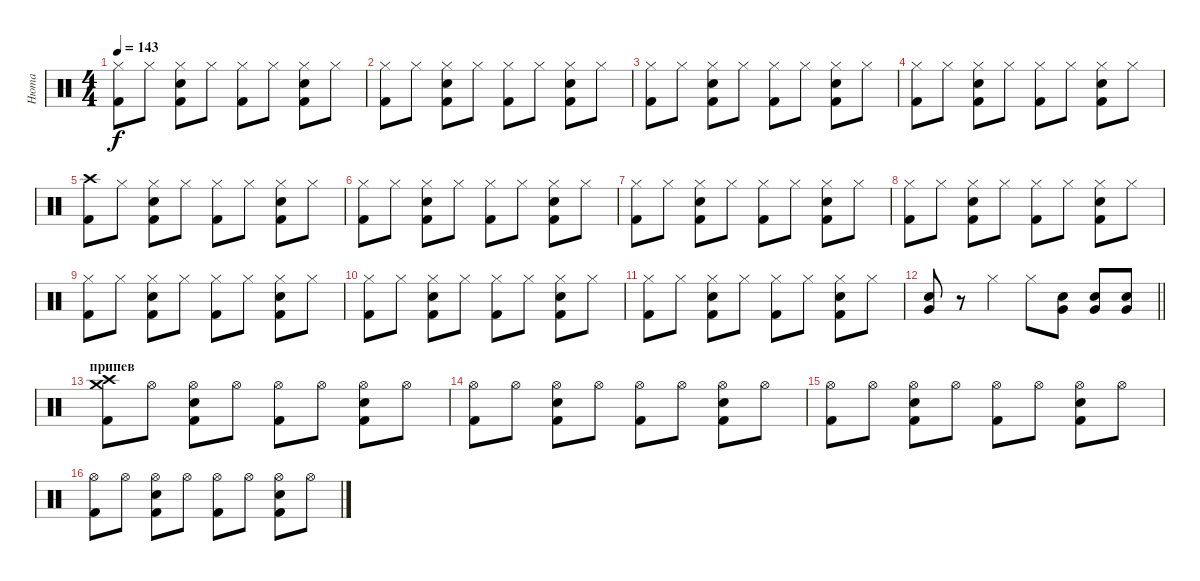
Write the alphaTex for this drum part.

\track ("Нюта" "Нюта") {instrument percussion}
\staff {score}
\articulation defaults
\ts (4 4)
\tempo 143
\clef neutral
\ks c
("Hi-Hat (closed)" "Kick (hit) 2").8{dy f} "Hi-Hat (closed)".8 ("Hi-Hat (closed)" "Snare (hit) 2" "Kick (hit) 2").8 "Hi-Hat (closed)".8 ("Hi-Hat (closed)" "Kick (hit) 2").8 "Hi-Hat (closed)".8 ("Hi-Hat (closed)" "Snare (hit) 2" "Kick (hit) 2").8 "Hi-Hat (closed)".8 |
("Hi-Hat (closed)" "Kick (hit) 2").8 "Hi-Hat (closed)".8 ("Hi-Hat (closed)" "Snare (hit) 2" "Kick (hit) 2").8 "Hi-Hat (closed)".8 ("Hi-Hat (closed)" "Kick (hit) 2").8 "Hi-Hat (closed)".8 ("Hi-Hat (closed)" "Snare (hit) 2" "Kick (hit) 2").8 "Hi-Hat (closed)".8 |
("Hi-Hat (closed)" "Kick (hit) 2").8 "Hi-Hat (closed)".8 ("Hi-Hat (closed)" "Snare (hit) 2" "Kick (hit) 2").8 "Hi-Hat (closed)".8 ("Hi-Hat (closed)" "Kick (hit) 2").8 "Hi-Hat (closed)".8 ("Hi-Hat (closed)" "Snare (hit) 2" "Kick (hit) 2").8 "Hi-Hat (closed)".8 |
("Hi-Hat (closed)" "Kick (hit) 2").8 "Hi-Hat (closed)".8 ("Hi-Hat (closed)" "Snare (hit) 2" "Kick (hit) 2").8 "Hi-Hat (closed)".8 ("Hi-Hat (closed)" "Kick (hit) 2").8 "Hi-Hat (closed)".8 ("Hi-Hat (closed)" "Snare (hit) 2" "Kick (hit) 2").8 "Hi-Hat (closed)".8 |
("Crash high (hit)" "Kick (hit) 2").8 "Hi-Hat (closed)".8 ("Hi-Hat (closed)" "Snare (hit) 2" "Kick (hit) 2").8 "Hi-Hat (closed)".8 ("Hi-Hat (closed)" "Kick (hit) 2").8 "Hi-Hat (closed)".8 ("Hi-Hat (closed)" "Snare (hit) 2" "Kick (hit) 2").8 "Hi-Hat (closed)".8 |
("Hi-Hat (closed)" "Kick (hit) 2").8 "Hi-Hat (closed)".8 ("Hi-Hat (closed)" "Snare (hit) 2" "Kick (hit) 2").8 "Hi-Hat (closed)".8 ("Hi-Hat (closed)" "Kick (hit) 2").8 "Hi-Hat (closed)".8 ("Hi-Hat (closed)" "Snare (hit) 2" "Kick (hit) 2").8 "Hi-Hat (closed)".8 |
("Hi-Hat (closed)" "Kick (hit) 2").8 "Hi-Hat (closed)".8 ("Hi-Hat (closed)" "Snare (hit) 2" "Kick (hit) 2").8 "Hi-Hat (closed)".8 ("Hi-Hat (closed)" "Kick (hit) 2").8 "Hi-Hat (closed)".8 ("Hi-Hat (closed)" "Snare (hit) 2" "Kick (hit) 2").8 "Hi-Hat (closed)".8 |
("Hi-Hat (closed)" "Kick (hit) 2").8 "Hi-Hat (closed)".8 ("Hi-Hat (closed)" "Snare (hit) 2" "Kick (hit) 2").8 "Hi-Hat (closed)".8 ("Hi-Hat (closed)" "Kick (hit) 2").8 "Hi-Hat (closed)".8 ("Hi-Hat (closed)" "Snare (hit) 2" "Kick (hit) 2").8 "Hi-Hat (closed)".8 |
("Hi-Hat (closed)" "Kick (hit) 2").8 "Hi-Hat (closed)".8 ("Hi-Hat (closed)" "Snare (hit) 2" "Kick (hit) 2").8 "Hi-Hat (closed)".8 ("Hi-Hat (closed)" "Kick (hit) 2").8 "Hi-Hat (closed)".8 ("Hi-Hat (closed)" "Snare (hit) 2" "Kick (hit) 2").8 "Hi-Hat (closed)".8 |
("Hi-Hat (closed)" "Kick (hit) 2").8 "Hi-Hat (closed)".8 ("Hi-Hat (closed)" "Snare (hit) 2" "Kick (hit) 2").8 "Hi-Hat (closed)".8 ("Hi-Hat (closed)" "Kick (hit) 2").8 "Hi-Hat (closed)".8 ("Hi-Hat (closed)" "Snare (hit) 2" "Kick (hit) 2").8 "Hi-Hat (closed)".8 |
("Hi-Hat (closed)" "Kick (hit) 2").8 "Hi-Hat (closed)".8 ("Hi-Hat (closed)" "Snare (hit) 2" "Kick (hit) 2").8 "Hi-Hat (closed)".8 ("Hi-Hat (closed)" "Kick (hit) 2").8 "Hi-Hat (closed)".8 ("Hi-Hat (closed)" "Snare (hit) 2" "Kick (hit) 2").8 "Hi-Hat (closed)".8 |
\barLineRight lightlight
("Very Low Tom (hit)" "Snare (hit) 2").8 r.8 "Hi-Hat (closed)".4 "Hi-Hat (closed)".8 ("Very Low Tom (hit)" "Snare (hit) 2").8 ("Very Low Tom (hit)" "Snare (hit) 2").8 ("Very Low Tom (hit)" "Snare (hit) 2").8 |
\section ("" "припев")
("Crash medium (hit)" "Crash high (hit)" "Kick (hit) 2").8 "Hi-Hat (open)".8 ("Hi-Hat (open)" "Snare (hit) 2" "Kick (hit) 2").8 "Hi-Hat (open)".8 ("Hi-Hat (open)" "Kick (hit) 2").8 "Hi-Hat (open)".8 ("Hi-Hat (open)" "Snare (hit) 2" "Kick (hit) 2").8 "Hi-Hat (open)".8 |
("Hi-Hat (open)" "Kick (hit) 2").8 "Hi-Hat (open)".8 ("Hi-Hat (open)" "Snare (hit) 2" "Kick (hit) 2").8 "Hi-Hat (open)".8 ("Hi-Hat (open)" "Kick (hit) 2").8 "Hi-Hat (open)".8 ("Hi-Hat (open)" "Snare (hit) 2" "Kick (hit) 2").8 "Hi-Hat (open)".8 |
("Hi-Hat (open)" "Kick (hit) 2").8 "Hi-Hat (open)".8 ("Hi-Hat (open)" "Snare (hit) 2" "Kick (hit) 2").8 "Hi-Hat (open)".8 ("Hi-Hat (open)" "Kick (hit) 2").8 "Hi-Hat (open)".8 ("Hi-Hat (open)" "Snare (hit) 2" "Kick (hit) 2").8 "Hi-Hat (open)".8 |
("Hi-Hat (open)" "Kick (hit) 2").8 "Hi-Hat (open)".8 ("Hi-Hat (open)" "Snare (hit) 2" "Kick (hit) 2").8 "Hi-Hat (open)".8 ("Hi-Hat (open)" "Kick (hit) 2").8 "Hi-Hat (open)".8 ("Hi-Hat (open)" "Snare (hit) 2" "Kick (hit) 2").8 "Hi-Hat (open)".8
